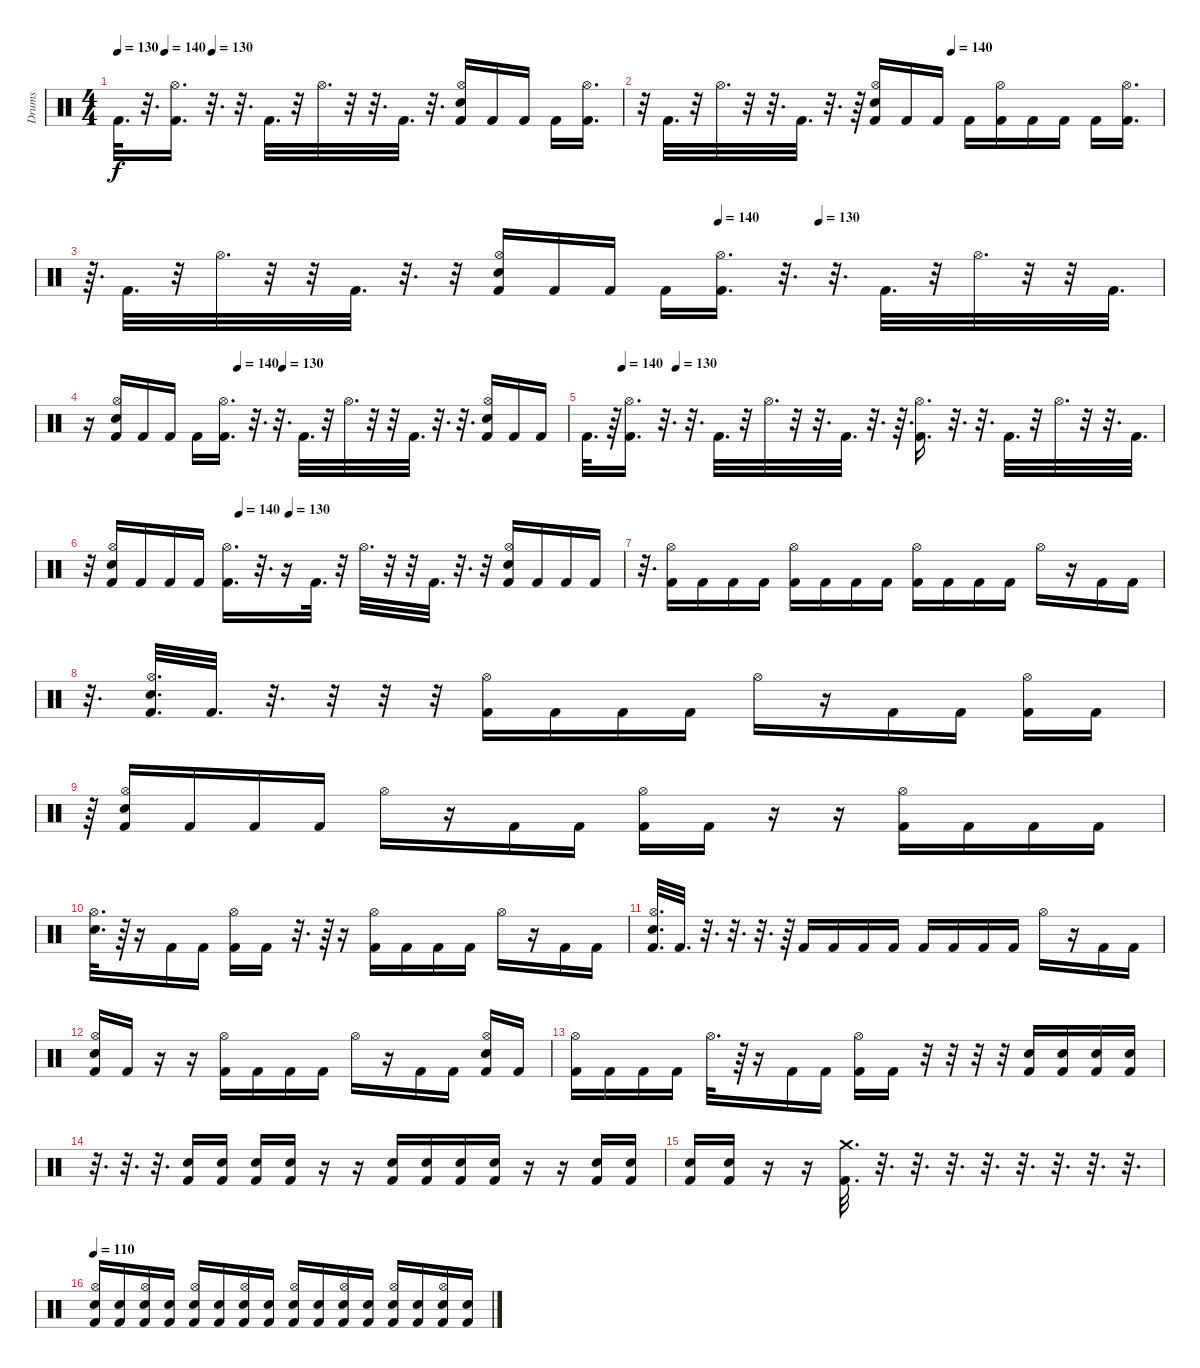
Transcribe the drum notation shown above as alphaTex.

\track ("Drums" "Drums") {instrument percussion}
\staff {score}
\articulation defaults
\ts (4 4)
\tempo 130
\tempo (140 0.09375)
\tempo (130 0.1875)
\clef neutral
\ks c "Kick (hit) 2".32{d dy f}
r.32{d} ("Hi-Hat (open)" "Kick (hit) 2").16{d} r.32{d} r.32{d} "Kick (hit) 2".32{d} r.32 "Hi-Hat (open)".32{d} r.32 r.32{d} "Kick (hit) 2".32{d} r.32{d} ("Hi-Hat (open)" "Snare (hit) 2" "Kick (hit) 2").16 "Kick (hit) 2".16 "Kick (hit) 2".16 "Kick (hit) 2".16 ("Hi-Hat (open)" "Kick (hit) 2").16{d} |
\tempo (140 0.59375)
r.32 "Kick (hit) 2".32{d} r.32 "Hi-Hat (open)".32{d} r.32 r.32{d} "Kick (hit) 2".32{d} r.32{d} r.64 ("Hi-Hat (open)" "Snare (hit) 2" "Kick (hit) 2").16 "Kick (hit) 2".16 "Kick (hit) 2".16 "Kick (hit) 2".16 ("Hi-Hat (open)" "Kick (hit) 2").16 "Kick (hit) 2".16 "Kick (hit) 2".16 "Kick (hit) 2".16 ("Hi-Hat (open)" "Kick (hit) 2").16{d} |
\tempo (140 0.5859375)
\tempo (130 0.6796875)
r.64{d} "Kick (hit) 2".32{d} r.32 "Hi-Hat (open)".32{d} r.32 r.32 "Kick (hit) 2".32{d} r.32{d} r.32 ("Hi-Hat (open)" "Snare (hit) 2" "Kick (hit) 2").16 "Kick (hit) 2".16 "Kick (hit) 2".16 "Kick (hit) 2".16 ("Hi-Hat (open)" "Kick (hit) 2").16{d} r.32{d} r.32{d} "Kick (hit) 2".32{d} r.32 "Hi-Hat (open)".32{d} r.32 r.32 "Kick (hit) 2".32{d} |
\tempo (140 0.3125)
\tempo (130 0.40625)
r.16 ("Hi-Hat (open)" "Snare (hit) 2" "Kick (hit) 2").16 "Kick (hit) 2".16 "Kick (hit) 2".16 "Kick (hit) 2".16 ("Hi-Hat (open)" "Kick (hit) 2").16{d} r.32{d} r.32{d} "Kick (hit) 2".32{d} r.32 "Hi-Hat (open)".32{d} r.32 r.32 "Kick (hit) 2".32{d} r.32{d} r.32{d} ("Hi-Hat (open)" "Snare (hit) 2" "Kick (hit) 2").16 "Kick (hit) 2".16 "Kick (hit) 2".16 |
\tempo (140 0.0625)
\tempo (130 0.15625)
"Kick (hit) 2".32{d} r.64 ("Hi-Hat (open)" "Kick (hit) 2").16{d} r.32{d} r.32{d} "Kick (hit) 2".32{d} r.32 "Hi-Hat (open)".32{d} r.32 r.32{d} "Kick (hit) 2".32{d} r.32{d} r.64{d} ("Hi-Hat (open)" "Kick (hit) 2").16{d} r.32{d} r.32{d} "Kick (hit) 2".32{d} r.32 "Hi-Hat (open)".32{d} r.32 r.32{d} "Kick (hit) 2".32{d} |
\tempo (140 0.28125)
\tempo (130 0.375)
r.32 ("Hi-Hat (open)" "Snare (hit) 2" "Kick (hit) 2").16 "Kick (hit) 2".16 "Kick (hit) 2".16 "Kick (hit) 2".16 ("Hi-Hat (open)" "Kick (hit) 2").16{d} r.32{d} r.16 "Kick (hit) 2".32{d} r.32 "Hi-Hat (open)".32{d} r.32 r.32 "Kick (hit) 2".32{d} r.32{d} r.32 ("Hi-Hat (open)" "Snare (hit) 2" "Kick (hit) 2").16 "Kick (hit) 2".16 "Kick (hit) 2".16 "Kick (hit) 2".16 |
r.32{d} ("Hi-Hat (open)" "Kick (hit) 2").16 "Kick (hit) 2".16 "Kick (hit) 2".16 "Kick (hit) 2".16 ("Hi-Hat (open)" "Kick (hit) 2").16 "Kick (hit) 2".16 "Kick (hit) 2".16 "Kick (hit) 2".16 ("Hi-Hat (open)" "Kick (hit) 2").16 "Kick (hit) 2".16 "Kick (hit) 2".16 "Kick (hit) 2".16 "Hi-Hat (open)".16 r.16 "Kick (hit) 2".16 "Kick (hit) 2".16 |
r.32{d} ("Hi-Hat (open)" "Snare (hit) 2" "Kick (hit) 2").32{d} "Kick (hit) 2".32{d} r.32{d} r.32 r.32 r.32 ("Hi-Hat (open)" "Kick (hit) 2").16 "Kick (hit) 2".16 "Kick (hit) 2".16 "Kick (hit) 2".16 "Hi-Hat (open)".16 r.16 "Kick (hit) 2".16 "Kick (hit) 2".16 ("Hi-Hat (open)" "Kick (hit) 2").16 "Kick (hit) 2".16 |
r.64 ("Hi-Hat (open)" "Snare (hit) 2" "Kick (hit) 2").16 "Kick (hit) 2".16 "Kick (hit) 2".16 "Kick (hit) 2".16 "Hi-Hat (open)".16 r.16 "Kick (hit) 2".16 "Kick (hit) 2".16 ("Hi-Hat (open)" "Kick (hit) 2").16 "Kick (hit) 2".16 r.16 r.16 ("Hi-Hat (open)" "Kick (hit) 2").16 "Kick (hit) 2".16 "Kick (hit) 2".16 "Kick (hit) 2".16 |
("Hi-Hat (open)" "Snare (hit) 2").32{d} r.64 r.16 "Kick (hit) 2".16 "Kick (hit) 2".16 ("Hi-Hat (open)" "Kick (hit) 2").16 "Kick (hit) 2".16 r.32{d} r.64 r.16 ("Hi-Hat (open)" "Kick (hit) 2").16 "Kick (hit) 2".16 "Kick (hit) 2".16 "Kick (hit) 2".16 "Hi-Hat (open)".16 r.16 "Kick (hit) 2".16 "Kick (hit) 2".16 |
("Hi-Hat (open)" "Snare (hit) 2" "Kick (hit) 2").32{d} "Kick (hit) 2".32{d} r.32{d} r.32{d} r.32{d} r.64 "Kick (hit) 2".16 "Kick (hit) 2".16 "Kick (hit) 2".16 "Kick (hit) 2".16 "Kick (hit) 2".16 "Kick (hit) 2".16 "Kick (hit) 2".16 "Kick (hit) 2".16 "Hi-Hat (open)".16 r.16 "Kick (hit) 2".16 "Kick (hit) 2".16 |
("Hi-Hat (open)" "Snare (hit) 2" "Kick (hit) 2").16 "Kick (hit) 2".16 r.16 r.16 ("Hi-Hat (open)" "Kick (hit) 2").16 "Kick (hit) 2".16 "Kick (hit) 2".16 "Kick (hit) 2".16 "Hi-Hat (open)".16 r.16 "Kick (hit) 2".16 "Kick (hit) 2".16 ("Hi-Hat (open)" "Snare (hit) 2" "Kick (hit) 2").16 "Kick (hit) 2".16 |
("Hi-Hat (open)" "Kick (hit) 2").16 "Kick (hit) 2".16 "Kick (hit) 2".16 "Kick (hit) 2".16 "Hi-Hat (open)".32{d} r.64 r.16 "Kick (hit) 2".16 "Kick (hit) 2".16 ("Hi-Hat (open)" "Kick (hit) 2").16 "Kick (hit) 2".16 r.32 r.32 r.32 r.32 ("Snare (hit) 2" "Kick (hit) 2").16 ("Snare (hit) 2" "Kick (hit) 2").16 ("Snare (hit) 2" "Kick (hit) 2").16 ("Snare (hit) 2" "Kick (hit) 2").16 |
r.32{d} r.32{d} r.32{d} ("Snare (hit) 2" "Kick (hit) 2").16 ("Snare (hit) 2" "Kick (hit) 2").16 ("Snare (hit) 2" "Kick (hit) 2").16 ("Snare (hit) 2" "Kick (hit) 2").16 r.16 r.16 ("Snare (hit) 2" "Kick (hit) 2").16 ("Snare (hit) 2" "Kick (hit) 2").16 ("Snare (hit) 2" "Kick (hit) 2").16 ("Snare (hit) 2" "Kick (hit) 2").16 r.16 r.16 ("Snare (hit) 2" "Kick (hit) 2").16 ("Snare (hit) 2" "Kick (hit) 2").16 |
("Snare (hit) 2" "Kick (hit) 2").16 ("Snare (hit) 2" "Kick (hit) 2").16 r.16 r.16 ("Crash medium (hit)" "Kick (hit) 2").32{d} r.32{d} r.32{d} r.32{d} r.32{d} r.32{d} r.32{d} r.32{d} r.32{d} |
\tempo 110
("Hi-Hat (open)" "Snare (hit) 2" "Kick (hit) 2").16 ("Snare (hit) 2" "Kick (hit) 2").16 ("Hi-Hat (open)" "Snare (hit) 2" "Kick (hit) 2").16 ("Snare (hit) 2" "Kick (hit) 2").16 ("Hi-Hat (open)" "Snare (hit) 2" "Kick (hit) 2").16 ("Snare (hit) 2" "Kick (hit) 2").16 ("Hi-Hat (open)" "Snare (hit) 2" "Kick (hit) 2").16 ("Snare (hit) 2" "Kick (hit) 2").16 ("Hi-Hat (open)" "Snare (hit) 2" "Kick (hit) 2").16 ("Snare (hit) 2" "Kick (hit) 2").16 ("Hi-Hat (open)" "Snare (hit) 2" "Kick (hit) 2").16 ("Snare (hit) 2" "Kick (hit) 2").16 ("Hi-Hat (open)" "Snare (hit) 2" "Kick (hit) 2").16 ("Snare (hit) 2" "Kick (hit) 2").16 ("Hi-Hat (open)" "Snare (hit) 2" "Kick (hit) 2").16 ("Snare (hit) 2" "Kick (hit) 2").16
